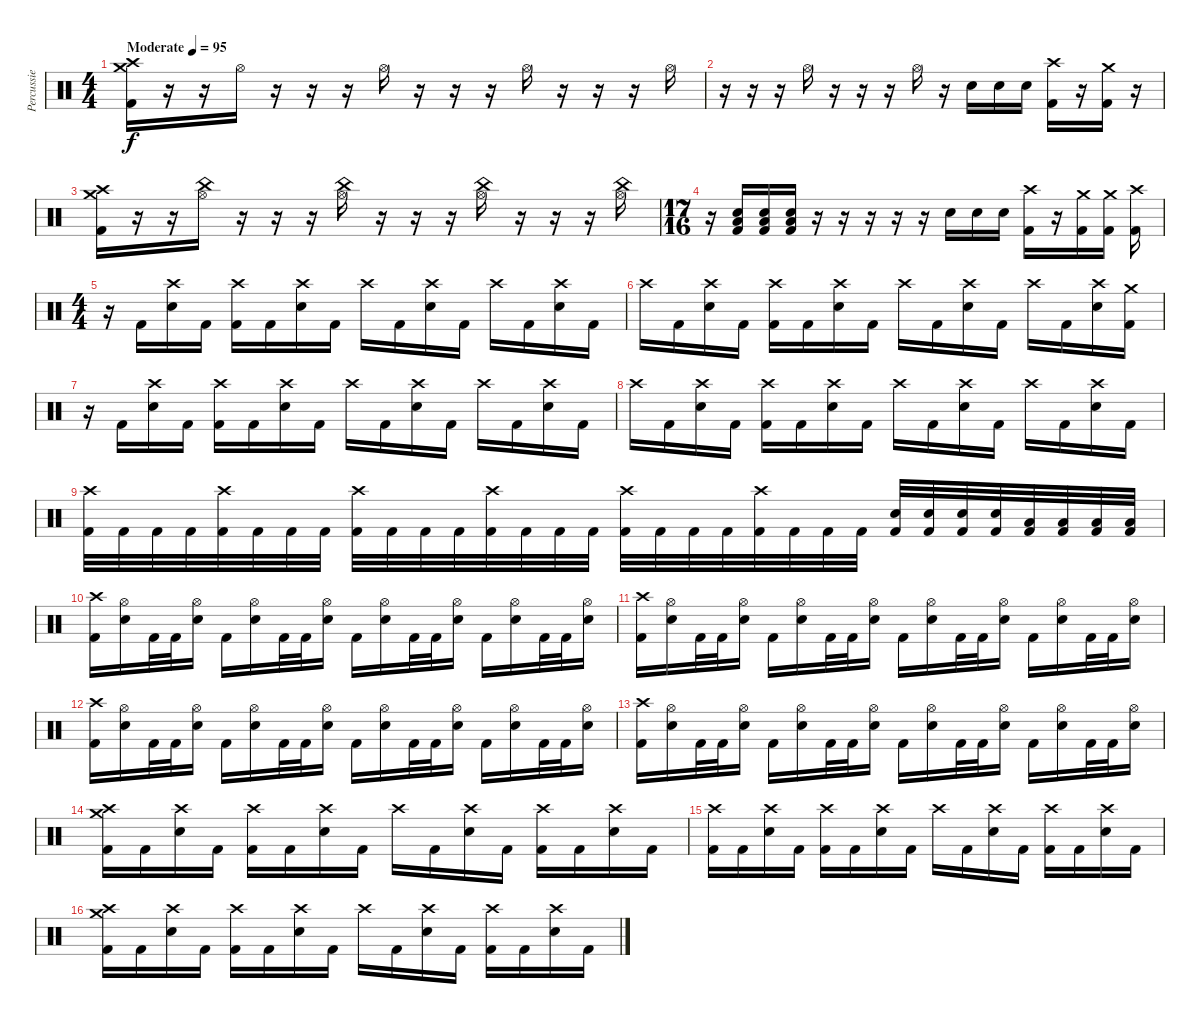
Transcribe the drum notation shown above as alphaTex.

\track ("Percussie" "Percussie") {instrument percussion}
\staff {score}
\articulation defaults
\ts (4 4)
\tempo (95 "Moderate")
\clef neutral
\ks c
("Crash medium (hit)" "Crash high (hit)" "Kick (hit) 2").16{dy f} r.16 r.16 "Hi-Hat (open)".16 r.16 r.16 r.16 "Hi-Hat (open)".16 r.16 r.16 r.16 "Hi-Hat (open)".16 r.16 r.16 r.16 "Hi-Hat (open)".16 |
r.16 r.16 r.16 "Hi-Hat (open)".16 r.16 r.16 r.16 "Hi-Hat (open)".16 r.16 "Electric Snare (hit)".16 "Electric Snare (hit)".16 "Electric Snare (hit)".16 ("Crash high (hit)" "Kick (hit) 2").16 r.16 ("Crash medium (hit)" "Kick (hit) 2").16 r.16 |
("Crash medium (hit)" "Crash high (hit)" "Kick (hit) 2").16 r.16 r.16 ("China (hit)" "Hi-Hat (open)").16 r.16 r.16 r.16 ("China (hit)" "Hi-Hat (open)").16 r.16 r.16 r.16 ("China (hit)" "Hi-Hat (open)").16 r.16 r.16 r.16 ("China (hit)" "Hi-Hat (open)").16 |
\ts (17 16)
r.16 ("Low Floor Tom (hit)" "Electric Snare (hit)" "Kick (hit) 2").16 ("Low Floor Tom (hit)" "Electric Snare (hit)" "Kick (hit) 2").16 ("Low Floor Tom (hit)" "Electric Snare (hit)" "Kick (hit) 2").16 r.16 r.16 r.16 r.16 r.16 "Electric Snare (hit)".16 "Electric Snare (hit)".16 "Electric Snare (hit)".16 ("Crash high (hit)" "Kick (hit) 2").16 r.16 ("Crash medium (hit)" "Kick (hit) 2").16 ("Crash medium (hit)" "Kick (hit) 2").16 ("Crash high (hit)" "Kick (hit) 2").16 |
\ts (4 4)
r.16 "Kick (hit) 2".16 ("Crash high (hit)" "Electric Snare (hit)").16 "Kick (hit) 2".16 ("Crash high (hit)" "Kick (hit) 2").16 "Kick (hit) 2".16 ("Crash high (hit)" "Electric Snare (hit)").16 "Kick (hit) 2".16 "Crash high (hit)".16 "Kick (hit) 2".16 ("Crash high (hit)" "Electric Snare (hit)").16 "Kick (hit) 2".16 "Crash high (hit)".16 "Kick (hit) 2".16 ("Crash high (hit)" "Electric Snare (hit)").16 "Kick (hit) 2".16 |
"Crash high (hit)".16 "Kick (hit) 2".16 ("Crash high (hit)" "Electric Snare (hit)").16 "Kick (hit) 2".16 ("Crash high (hit)" "Kick (hit) 2").16 "Kick (hit) 2".16 ("Crash high (hit)" "Electric Snare (hit)").16 "Kick (hit) 2".16 "Crash high (hit)".16 "Kick (hit) 2".16 ("Crash high (hit)" "Electric Snare (hit)").16 "Kick (hit) 2".16 "Crash high (hit)".16 "Kick (hit) 2".16 ("Crash high (hit)" "Electric Snare (hit)").16 ("Crash medium (hit)" "Kick (hit) 2").16 |
r.16 "Kick (hit) 2".16 ("Crash high (hit)" "Electric Snare (hit)").16 "Kick (hit) 2".16 ("Crash high (hit)" "Kick (hit) 2").16 "Kick (hit) 2".16 ("Crash high (hit)" "Electric Snare (hit)").16 "Kick (hit) 2".16 "Crash high (hit)".16 "Kick (hit) 2".16 ("Crash high (hit)" "Electric Snare (hit)").16 "Kick (hit) 2".16 "Crash high (hit)".16 "Kick (hit) 2".16 ("Crash high (hit)" "Electric Snare (hit)").16 "Kick (hit) 2".16 |
"Crash high (hit)".16 "Kick (hit) 2".16 ("Crash high (hit)" "Electric Snare (hit)").16 "Kick (hit) 2".16 ("Crash high (hit)" "Kick (hit) 2").16 "Kick (hit) 2".16 ("Crash high (hit)" "Electric Snare (hit)").16 "Kick (hit) 2".16 "Crash high (hit)".16 "Kick (hit) 2".16 ("Crash high (hit)" "Electric Snare (hit)").16 "Kick (hit) 2".16 "Crash high (hit)".16 "Kick (hit) 2".16 ("Crash high (hit)" "Electric Snare (hit)").16 "Kick (hit) 2".16 |
("Crash high (hit)" "Kick (hit) 2").32 "Kick (hit) 2".32 "Kick (hit) 2".32 "Kick (hit) 2".32 ("Crash high (hit)" "Kick (hit) 2").32 "Kick (hit) 2".32 "Kick (hit) 2".32 "Kick (hit) 2".32 ("Crash high (hit)" "Kick (hit) 2").32 "Kick (hit) 2".32 "Kick (hit) 2".32 "Kick (hit) 2".32 ("Crash high (hit)" "Kick (hit) 2").32 "Kick (hit) 2".32 "Kick (hit) 2".32 "Kick (hit) 2".32 ("Crash high (hit)" "Kick (hit) 2").32 "Kick (hit) 2".32 "Kick (hit) 2".32 "Kick (hit) 2".32 ("Crash high (hit)" "Kick (hit) 2").32 "Kick (hit) 2".32 "Kick (hit) 2".32 "Kick (hit) 2".32 ("Electric Snare (hit)" "Kick (hit) 2").32 ("Electric Snare (hit)" "Kick (hit) 2").32 ("Electric Snare (hit)" "Kick (hit) 2").32 ("Electric Snare (hit)" "Kick (hit) 2").32 ("Low Tom (hit)" "Kick (hit) 2").32 ("Low Tom (hit)" "Kick (hit) 2").32 ("Low Tom (hit)" "Kick (hit) 2").32 ("Low Tom (hit)" "Kick (hit) 2").32 |
("Crash high (hit)" "Kick (hit) 2").16 ("Hi-Hat (open)" "Electric Snare (hit)").16 "Kick (hit) 2".32 "Kick (hit) 2".32 ("Hi-Hat (open)" "Electric Snare (hit)").16 "Kick (hit) 2".16 ("Hi-Hat (open)" "Electric Snare (hit)").16 "Kick (hit) 2".32 "Kick (hit) 2".32 ("Hi-Hat (open)" "Electric Snare (hit)").16 "Kick (hit) 2".16 ("Hi-Hat (open)" "Electric Snare (hit)").16 "Kick (hit) 2".32 "Kick (hit) 2".32 ("Hi-Hat (open)" "Electric Snare (hit)").16 "Kick (hit) 2".16 ("Hi-Hat (open)" "Electric Snare (hit)").16 "Kick (hit) 2".32 "Kick (hit) 2".32 ("Hi-Hat (open)" "Electric Snare (hit)").16 |
("Crash high (hit)" "Kick (hit) 2").16 ("Hi-Hat (open)" "Electric Snare (hit)").16 "Kick (hit) 2".32 "Kick (hit) 2".32 ("Hi-Hat (open)" "Electric Snare (hit)").16 "Kick (hit) 2".16 ("Hi-Hat (open)" "Electric Snare (hit)").16 "Kick (hit) 2".32 "Kick (hit) 2".32 ("Hi-Hat (open)" "Electric Snare (hit)").16 "Kick (hit) 2".16 ("Hi-Hat (open)" "Electric Snare (hit)").16 "Kick (hit) 2".32 "Kick (hit) 2".32 ("Hi-Hat (open)" "Electric Snare (hit)").16 "Kick (hit) 2".16 ("Hi-Hat (open)" "Electric Snare (hit)").16 "Kick (hit) 2".32 "Kick (hit) 2".32 ("Hi-Hat (open)" "Electric Snare (hit)").16 |
("Crash high (hit)" "Kick (hit) 2").16 ("Hi-Hat (open)" "Electric Snare (hit)").16 "Kick (hit) 2".32 "Kick (hit) 2".32 ("Hi-Hat (open)" "Electric Snare (hit)").16 "Kick (hit) 2".16 ("Hi-Hat (open)" "Electric Snare (hit)").16 "Kick (hit) 2".32 "Kick (hit) 2".32 ("Hi-Hat (open)" "Electric Snare (hit)").16 "Kick (hit) 2".16 ("Hi-Hat (open)" "Electric Snare (hit)").16 "Kick (hit) 2".32 "Kick (hit) 2".32 ("Hi-Hat (open)" "Electric Snare (hit)").16 "Kick (hit) 2".16 ("Hi-Hat (open)" "Electric Snare (hit)").16 "Kick (hit) 2".32 "Kick (hit) 2".32 ("Hi-Hat (open)" "Electric Snare (hit)").16 |
("Crash high (hit)" "Kick (hit) 2").16 ("Hi-Hat (open)" "Electric Snare (hit)").16 "Kick (hit) 2".32 "Kick (hit) 2".32 ("Hi-Hat (open)" "Electric Snare (hit)").16 "Kick (hit) 2".16 ("Hi-Hat (open)" "Electric Snare (hit)").16 "Kick (hit) 2".32 "Kick (hit) 2".32 ("Hi-Hat (open)" "Electric Snare (hit)").16 "Kick (hit) 2".16 ("Hi-Hat (open)" "Electric Snare (hit)").16 "Kick (hit) 2".32 "Kick (hit) 2".32 ("Hi-Hat (open)" "Electric Snare (hit)").16 "Kick (hit) 2".16 ("Hi-Hat (open)" "Electric Snare (hit)").16 "Kick (hit) 2".32 "Kick (hit) 2".32 ("Hi-Hat (open)" "Electric Snare (hit)").16 |
("Crash medium (hit)" "Crash high (hit)" "Kick (hit) 2").16 "Kick (hit) 2".16 ("Crash high (hit)" "Electric Snare (hit)").16 "Kick (hit) 2".16 ("Crash high (hit)" "Kick (hit) 2").16 "Kick (hit) 2".16 ("Crash high (hit)" "Electric Snare (hit)").16 "Kick (hit) 2".16 "Crash high (hit)".16 "Kick (hit) 2".16 ("Crash high (hit)" "Electric Snare (hit)").16 "Kick (hit) 2".16 ("Crash high (hit)" "Kick (hit) 2").16 "Kick (hit) 2".16 ("Crash high (hit)" "Electric Snare (hit)").16 "Kick (hit) 2".16 |
("Crash high (hit)" "Kick (hit) 2").16 "Kick (hit) 2".16 ("Crash high (hit)" "Electric Snare (hit)").16 "Kick (hit) 2".16 ("Crash high (hit)" "Kick (hit) 2").16 "Kick (hit) 2".16 ("Crash high (hit)" "Electric Snare (hit)").16 "Kick (hit) 2".16 "Crash high (hit)".16 "Kick (hit) 2".16 ("Crash high (hit)" "Electric Snare (hit)").16 "Kick (hit) 2".16 ("Crash high (hit)" "Kick (hit) 2").16 "Kick (hit) 2".16 ("Crash high (hit)" "Electric Snare (hit)").16 "Kick (hit) 2".16 |
("Crash medium (hit)" "Crash high (hit)" "Kick (hit) 2").16 "Kick (hit) 2".16 ("Crash high (hit)" "Electric Snare (hit)").16 "Kick (hit) 2".16 ("Crash high (hit)" "Kick (hit) 2").16 "Kick (hit) 2".16 ("Crash high (hit)" "Electric Snare (hit)").16 "Kick (hit) 2".16 "Crash high (hit)".16 "Kick (hit) 2".16 ("Crash high (hit)" "Electric Snare (hit)").16 "Kick (hit) 2".16 ("Crash high (hit)" "Kick (hit) 2").16 "Kick (hit) 2".16 ("Crash high (hit)" "Electric Snare (hit)").16 "Kick (hit) 2".16
